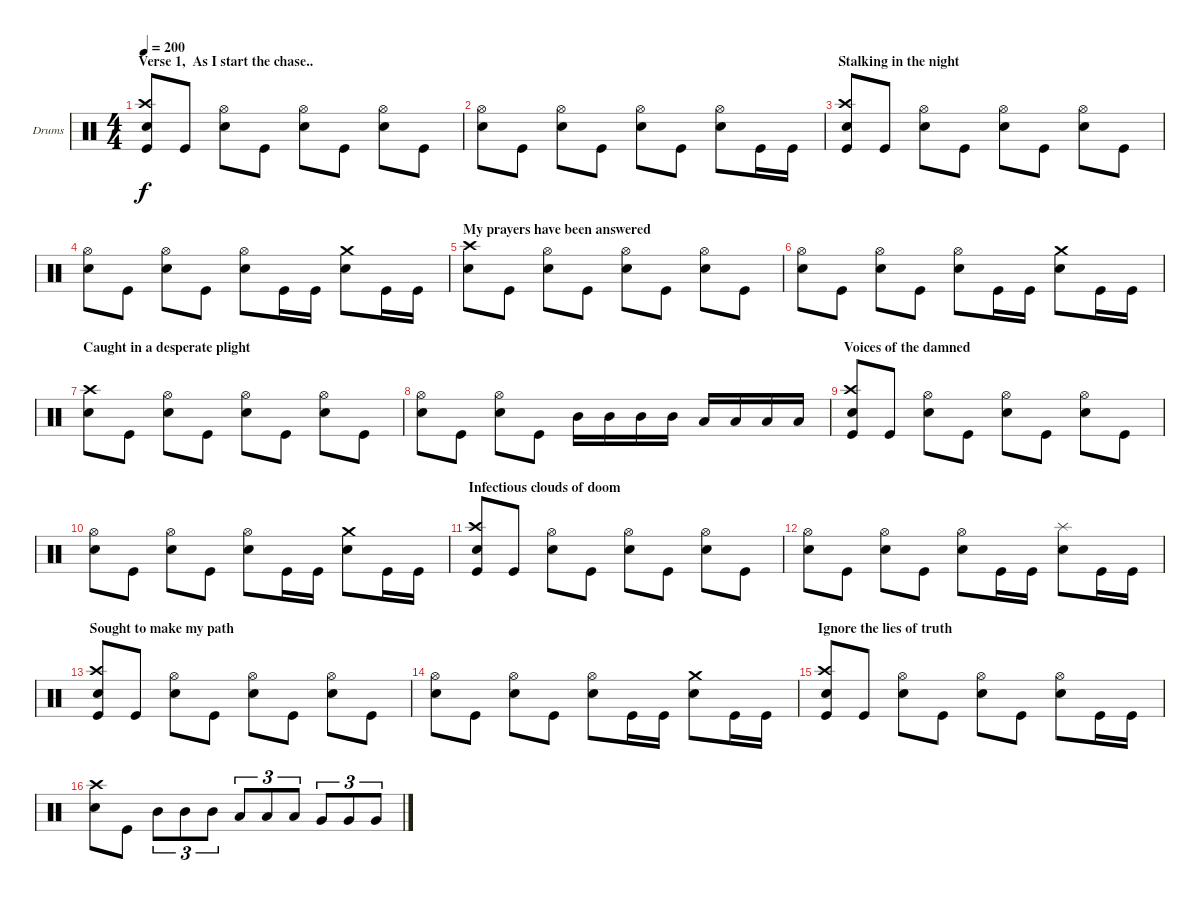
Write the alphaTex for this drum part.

\defaultSystemsLayout 4
\bracketExtendMode groupsimilarinstruments
\firstSystemTrackNameOrientation horizontal
\otherSystemsTrackNameOrientation horizontal
\track ("Markus Freiwald" "Drums") {instrument percussion}
\staff {score}
\articulation defaults
\ts (4 4)
\section ("" "Verse 1,  As I start the chase..")
\tempo 200
\clef neutral
\ks c
("Kick (hit)" "Crash high (hit)" "Snare (hit) 2").8{dy f} "Kick (hit)".8 ("Snare (hit) 2" "Hi-Hat (open)").8 "Kick (hit)".8 ("Snare (hit) 2" "Hi-Hat (open)").8 "Kick (hit)".8 ("Snare (hit) 2" "Hi-Hat (open)").8 "Kick (hit)".8 |
("Snare (hit) 2" "Hi-Hat (open)").8 "Kick (hit)".8 ("Snare (hit) 2" "Hi-Hat (open)").8 "Kick (hit)".8 ("Snare (hit) 2" "Hi-Hat (open)").8 "Kick (hit)".8 ("Snare (hit) 2" "Hi-Hat (open)").8 "Kick (hit)".16 "Kick (hit)".16 |
\section ("" "Stalking in the night")
("Kick (hit)" "Crash high (hit)" "Snare (hit) 2").8 "Kick (hit)".8 ("Snare (hit) 2" "Hi-Hat (open)").8 "Kick (hit)".8 ("Snare (hit) 2" "Hi-Hat (open)").8 "Kick (hit)".8 ("Snare (hit) 2" "Hi-Hat (open)").8 "Kick (hit)".8 |
("Snare (hit) 2" "Hi-Hat (open)").8 "Kick (hit)".8 ("Snare (hit) 2" "Hi-Hat (open)").8 "Kick (hit)".8 ("Snare (hit) 2" "Hi-Hat (open)").8 "Kick (hit)".16 "Kick (hit)".16 ("Snare (hit) 2" "Crash medium (hit)").8 "Kick (hit)".16 "Kick (hit)".16 |
\section ("" "My prayers have been answered")
("Snare (hit) 2" "Crash high (hit)").8 "Kick (hit)".8 ("Snare (hit) 2" "Hi-Hat (open)").8 "Kick (hit)".8 ("Snare (hit) 2" "Hi-Hat (open)").8 "Kick (hit)".8 ("Snare (hit) 2" "Hi-Hat (open)").8 "Kick (hit)".8 |
("Snare (hit) 2" "Hi-Hat (open)").8 "Kick (hit)".8 ("Snare (hit) 2" "Hi-Hat (open)").8 "Kick (hit)".8 ("Snare (hit) 2" "Hi-Hat (open)").8 "Kick (hit)".16 "Kick (hit)".16 ("Snare (hit) 2" "Crash medium (hit)").8 "Kick (hit)".16 "Kick (hit)".16 |
\section ("" "Caught in a desperate plight")
("Snare (hit) 2" "Crash high (hit)").8 "Kick (hit)".8 ("Snare (hit) 2" "Hi-Hat (open)").8 "Kick (hit)".8 ("Snare (hit) 2" "Hi-Hat (open)").8 "Kick (hit)".8 ("Snare (hit) 2" "Hi-Hat (open)").8 "Kick (hit)".8 |
("Snare (hit) 2" "Hi-Hat (open)").8 "Kick (hit)".8 ("Snare (hit) 2" "Hi-Hat (open)").8 "Kick (hit)".8 "Mid Tom (hit)".16 "Mid Tom (hit)".16 "Mid Tom (hit)".16 "Mid Tom (hit)".16 "Low Tom (hit)".16 "Low Tom (hit)".16 "Low Tom (hit)".16 "Low Tom (hit)".16 |
\section ("" "Voices of the damned")
("Kick (hit)" "Crash high (hit)" "Snare (hit) 2").8 "Kick (hit)".8 ("Snare (hit) 2" "Hi-Hat (open)").8 "Kick (hit)".8 ("Snare (hit) 2" "Hi-Hat (open)").8 "Kick (hit)".8 ("Snare (hit) 2" "Hi-Hat (open)").8 "Kick (hit)".8 |
("Snare (hit) 2" "Hi-Hat (open)").8 "Kick (hit)".8 ("Snare (hit) 2" "Hi-Hat (open)").8 "Kick (hit)".8 ("Snare (hit) 2" "Hi-Hat (open)").8 "Kick (hit)".16 "Kick (hit)".16 ("Snare (hit) 2" "Crash medium (hit)").8 "Kick (hit)".16 "Kick (hit)".16 |
\section ("" "Infectious clouds of doom")
("Kick (hit)" "Crash high (hit)" "Snare (hit) 2").8 "Kick (hit)".8 ("Snare (hit) 2" "Hi-Hat (open)").8 "Kick (hit)".8 ("Snare (hit) 2" "Hi-Hat (open)").8 "Kick (hit)".8 ("Snare (hit) 2" "Hi-Hat (open)").8 "Kick (hit)".8 |
("Snare (hit) 2" "Hi-Hat (open)").8 "Kick (hit)".8 ("Snare (hit) 2" "Hi-Hat (open)").8 "Kick (hit)".8 ("Snare (hit) 2" "Hi-Hat (open)").8 "Kick (hit)".16 "Kick (hit)".16 ("Snare (hit) 2" "Splash (hit)").8 "Kick (hit)".16 "Kick (hit)".16 |
\section ("" "Sought to make my path")
("Kick (hit)" "Crash high (hit)" "Snare (hit) 2").8 "Kick (hit)".8 ("Snare (hit) 2" "Hi-Hat (open)").8 "Kick (hit)".8 ("Snare (hit) 2" "Hi-Hat (open)").8 "Kick (hit)".8 ("Snare (hit) 2" "Hi-Hat (open)").8 "Kick (hit)".8 |
("Snare (hit) 2" "Hi-Hat (open)").8 "Kick (hit)".8 ("Snare (hit) 2" "Hi-Hat (open)").8 "Kick (hit)".8 ("Snare (hit) 2" "Hi-Hat (open)").8 "Kick (hit)".16 "Kick (hit)".16 ("Snare (hit) 2" "Crash medium (hit)").8 "Kick (hit)".16 "Kick (hit)".16 |
\section ("" "Ignore the lies of truth")
("Kick (hit)" "Crash high (hit)" "Snare (hit) 2").8 "Kick (hit)".8 ("Snare (hit) 2" "Hi-Hat (open)").8 "Kick (hit)".8 ("Snare (hit) 2" "Hi-Hat (open)").8 "Kick (hit)".8 ("Snare (hit) 2" "Hi-Hat (open)").8 "Kick (hit)".16 "Kick (hit)".16 |
("Snare (hit) 2" "Crash high (hit)").8 "Kick (hit)".8 "Mid Tom (hit)".8{tu (3 2)} "Mid Tom (hit)".8{tu (3 2)} "Mid Tom (hit)".8{tu (3 2)} "Low Tom (hit)".8{tu (3 2)} "Low Tom (hit)".8{tu (3 2)} "Low Tom (hit)".8{tu (3 2)} "Very Low Tom (hit)".8{tu (3 2)} "Very Low Tom (hit)".8{tu (3 2)} "Very Low Tom (hit)".8{tu (3 2)}
